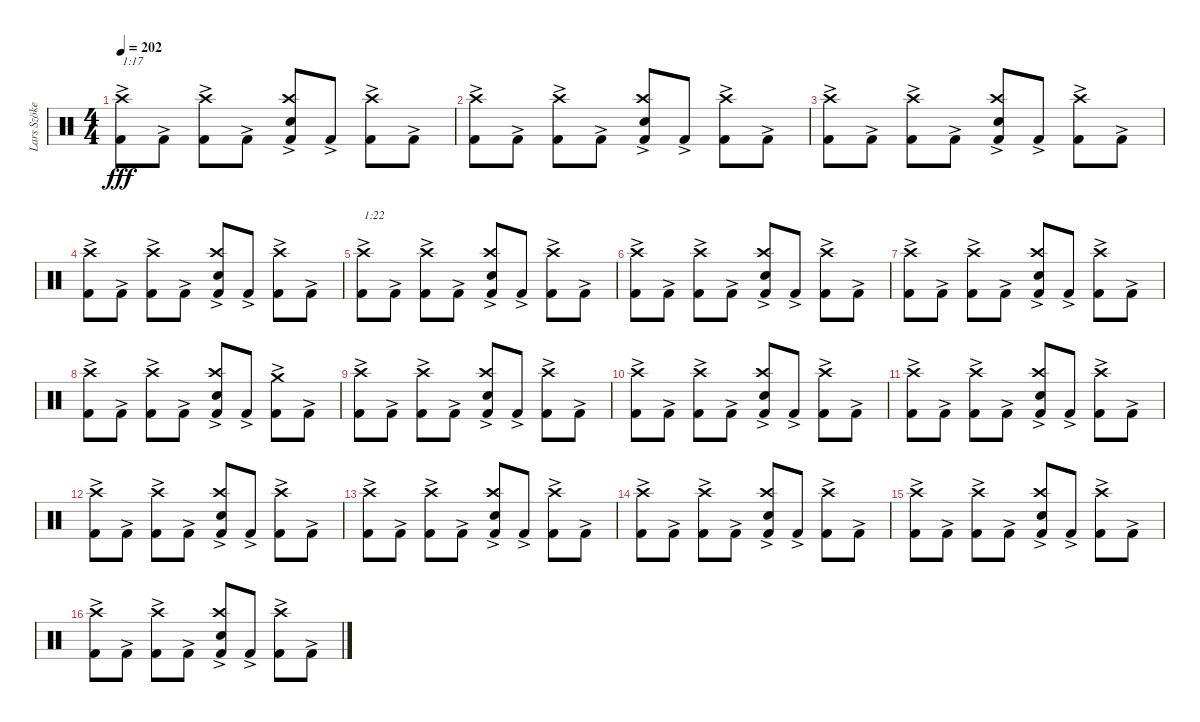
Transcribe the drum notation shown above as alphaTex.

\track ("Lars Szöke" "Lars Szöke") {instrument percussion}
\staff {score}
\articulation defaults
\ts (4 4)
\tempo 202
\clef neutral
\ks c
("Kick (hit) 2"{ac} "Crash high (hit)"{ac}).8{txt "1:17" dy fff} "Kick (hit) 2"{ac}.8 ("Kick (hit) 2"{ac} "Crash high (hit)").8 "Kick (hit) 2"{ac}.8 ("Kick (hit) 2"{ac} "Snare (hit) 2" "Crash high (hit)").8 "Kick (hit) 2"{ac}.8 ("Kick (hit) 2"{ac} "Crash high (hit)").8 "Kick (hit) 2"{ac}.8 |
("Kick (hit) 2"{ac} "Crash high (hit)").8 "Kick (hit) 2"{ac}.8 ("Kick (hit) 2"{ac} "Crash high (hit)").8 "Kick (hit) 2"{ac}.8 ("Kick (hit) 2"{ac} "Snare (hit) 2" "Crash high (hit)").8 "Kick (hit) 2"{ac}.8 ("Kick (hit) 2"{ac} "Crash high (hit)").8 "Kick (hit) 2"{ac}.8 |
("Kick (hit) 2"{ac} "Crash high (hit)").8 "Kick (hit) 2"{ac}.8 ("Kick (hit) 2"{ac} "Crash high (hit)").8 "Kick (hit) 2"{ac}.8 ("Kick (hit) 2"{ac} "Snare (hit) 2" "Crash high (hit)").8 "Kick (hit) 2"{ac}.8 ("Kick (hit) 2"{ac} "Crash high (hit)").8 "Kick (hit) 2"{ac}.8 |
("Kick (hit) 2"{ac} "Crash high (hit)").8 "Kick (hit) 2"{ac}.8 ("Kick (hit) 2"{ac} "Crash high (hit)").8 "Kick (hit) 2"{ac}.8 ("Kick (hit) 2"{ac} "Snare (hit) 2" "Crash high (hit)").8 "Kick (hit) 2"{ac}.8 ("Kick (hit) 2"{ac} "Crash high (hit)").8 "Kick (hit) 2"{ac}.8 |
("Kick (hit) 2"{ac} "Crash high (hit)"{ac}).8{txt "1:22"} "Kick (hit) 2"{ac}.8 ("Kick (hit) 2"{ac} "Crash high (hit)").8 "Kick (hit) 2"{ac}.8 ("Kick (hit) 2"{ac} "Snare (hit) 2" "Crash high (hit)").8 "Kick (hit) 2"{ac}.8 ("Kick (hit) 2"{ac} "Crash high (hit)").8 "Kick (hit) 2"{ac}.8 |
("Kick (hit) 2"{ac} "Crash high (hit)").8 "Kick (hit) 2"{ac}.8 ("Kick (hit) 2"{ac} "Crash high (hit)").8 "Kick (hit) 2"{ac}.8 ("Kick (hit) 2"{ac} "Snare (hit) 2" "Crash high (hit)").8 "Kick (hit) 2"{ac}.8 ("Kick (hit) 2"{ac} "Crash high (hit)").8 "Kick (hit) 2"{ac}.8 |
("Kick (hit) 2"{ac} "Crash high (hit)").8 "Kick (hit) 2"{ac}.8 ("Kick (hit) 2"{ac} "Crash high (hit)").8 "Kick (hit) 2"{ac}.8 ("Kick (hit) 2"{ac} "Snare (hit) 2" "Crash high (hit)").8 "Kick (hit) 2"{ac}.8 ("Kick (hit) 2"{ac} "Crash high (hit)").8 "Kick (hit) 2"{ac}.8 |
("Kick (hit) 2"{ac} "Crash high (hit)").8 "Kick (hit) 2"{ac}.8 ("Kick (hit) 2"{ac} "Crash high (hit)").8 "Kick (hit) 2"{ac}.8 ("Kick (hit) 2"{ac} "Snare (hit) 2" "Crash high (hit)").8 "Kick (hit) 2"{ac}.8 ("Kick (hit) 2"{ac} "Crash medium (hit)"{ac}).8 "Kick (hit) 2"{ac}.8 |
("Kick (hit) 2"{ac} "Crash high (hit)"{ac}).8 "Kick (hit) 2"{ac}.8 ("Kick (hit) 2"{ac} "Crash high (hit)").8 "Kick (hit) 2"{ac}.8 ("Kick (hit) 2"{ac} "Snare (hit) 2" "Crash high (hit)").8 "Kick (hit) 2"{ac}.8 ("Kick (hit) 2"{ac} "Crash high (hit)").8 "Kick (hit) 2"{ac}.8 |
("Kick (hit) 2"{ac} "Crash high (hit)").8 "Kick (hit) 2"{ac}.8 ("Kick (hit) 2"{ac} "Crash high (hit)").8 "Kick (hit) 2"{ac}.8 ("Kick (hit) 2"{ac} "Snare (hit) 2" "Crash high (hit)").8 "Kick (hit) 2"{ac}.8 ("Kick (hit) 2"{ac} "Crash high (hit)").8 "Kick (hit) 2"{ac}.8 |
("Kick (hit) 2"{ac} "Crash high (hit)").8 "Kick (hit) 2"{ac}.8 ("Kick (hit) 2"{ac} "Crash high (hit)").8 "Kick (hit) 2"{ac}.8 ("Kick (hit) 2"{ac} "Snare (hit) 2" "Crash high (hit)").8 "Kick (hit) 2"{ac}.8 ("Kick (hit) 2"{ac} "Crash high (hit)").8 "Kick (hit) 2"{ac}.8 |
("Kick (hit) 2"{ac} "Crash high (hit)").8 "Kick (hit) 2"{ac}.8 ("Kick (hit) 2"{ac} "Crash high (hit)").8 "Kick (hit) 2"{ac}.8 ("Kick (hit) 2"{ac} "Snare (hit) 2" "Crash high (hit)").8 "Kick (hit) 2"{ac}.8 ("Kick (hit) 2"{ac} "Crash high (hit)").8 "Kick (hit) 2"{ac}.8 |
("Kick (hit) 2"{ac} "Crash high (hit)"{ac}).8 "Kick (hit) 2"{ac}.8 ("Kick (hit) 2"{ac} "Crash high (hit)").8 "Kick (hit) 2"{ac}.8 ("Kick (hit) 2"{ac} "Snare (hit) 2" "Crash high (hit)").8 "Kick (hit) 2"{ac}.8 ("Kick (hit) 2"{ac} "Crash high (hit)").8 "Kick (hit) 2"{ac}.8 |
("Kick (hit) 2"{ac} "Crash high (hit)").8 "Kick (hit) 2"{ac}.8 ("Kick (hit) 2"{ac} "Crash high (hit)").8 "Kick (hit) 2"{ac}.8 ("Kick (hit) 2"{ac} "Snare (hit) 2" "Crash high (hit)").8 "Kick (hit) 2"{ac}.8 ("Kick (hit) 2"{ac} "Crash high (hit)").8 "Kick (hit) 2"{ac}.8 |
("Kick (hit) 2"{ac} "Crash high (hit)").8 "Kick (hit) 2"{ac}.8 ("Kick (hit) 2"{ac} "Crash high (hit)").8 "Kick (hit) 2"{ac}.8 ("Kick (hit) 2"{ac} "Snare (hit) 2" "Crash high (hit)").8 "Kick (hit) 2"{ac}.8 ("Kick (hit) 2"{ac} "Crash high (hit)").8 "Kick (hit) 2"{ac}.8 |
("Kick (hit) 2"{ac} "Crash high (hit)").8 "Kick (hit) 2"{ac}.8 ("Kick (hit) 2"{ac} "Crash high (hit)").8 "Kick (hit) 2"{ac}.8 ("Kick (hit) 2"{ac} "Snare (hit) 2" "Crash high (hit)").8 "Kick (hit) 2"{ac}.8 ("Kick (hit) 2"{ac} "Crash high (hit)").8 "Kick (hit) 2"{ac}.8
